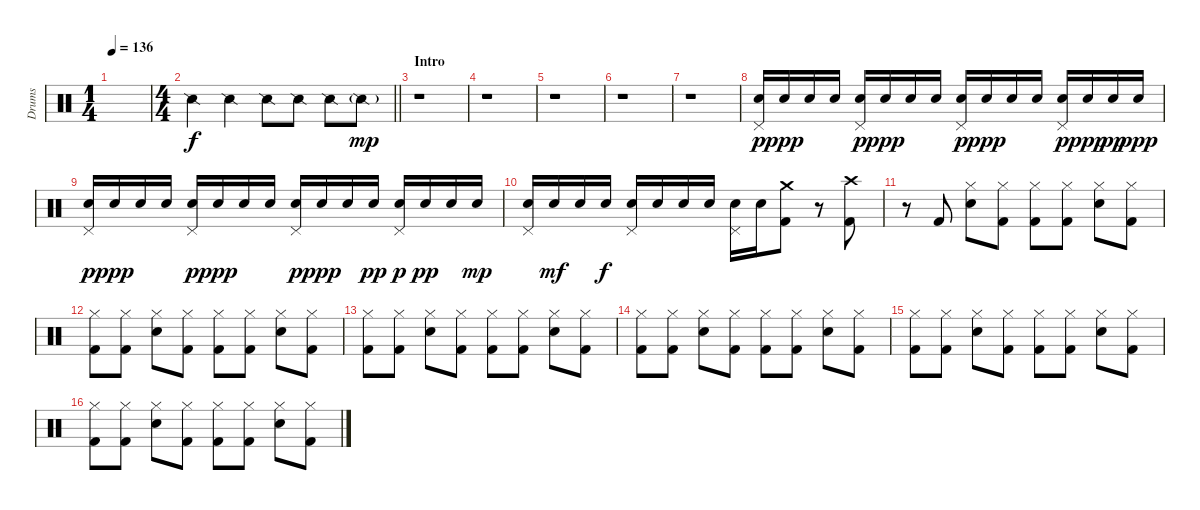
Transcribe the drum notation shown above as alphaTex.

\track ("Drums" "Drums") {instrument percussion}
\staff {score}
\articulation defaults
\ts (1 4)
\tempo 136
\clef neutral
\ks c
|
\ts (4 4)
\barLineRight lightlight "Snare (side stick) 2".4 "Snare (side stick) 2".4 "Snare (side stick) 2".8 "Snare (side stick) 2".8 "Snare (side stick) 2".8 "Snare (side stick) 2"{g}.8{dy mp}
|
\section ("" "Intro")
r.1 |
r.1 |
r.1 |
r.1 |
r.1 |
("Pedal Hi-Hat (hit)" "Snare (hit) 2").16{dy p} "Snare (hit) 2".16{dy ppp} "Snare (hit) 2".16 "Snare (hit) 2".16 ("Pedal Hi-Hat (hit)" "Snare (hit) 2").16{dy p} "Snare (hit) 2".16{dy ppp} "Snare (hit) 2".16 "Snare (hit) 2".16 ("Pedal Hi-Hat (hit)" "Snare (hit) 2").16{dy p} "Snare (hit) 2".16{dy ppp} "Snare (hit) 2".16 "Snare (hit) 2".16 ("Pedal Hi-Hat (hit)" "Snare (hit) 2").16{dy p} "Snare (hit) 2".16{dy ppp} "Snare (hit) 2".16{dy pp} "Snare (hit) 2".16{dy ppp} |
("Pedal Hi-Hat (hit)" "Snare (hit) 2").16{dy p} "Snare (hit) 2".16{dy ppp} "Snare (hit) 2".16 "Snare (hit) 2".16 ("Pedal Hi-Hat (hit)" "Snare (hit) 2").16{dy p} "Snare (hit) 2".16{dy ppp} "Snare (hit) 2".16 "Snare (hit) 2".16 ("Pedal Hi-Hat (hit)" "Snare (hit) 2").16{dy p} "Snare (hit) 2".16{dy ppp} "Snare (hit) 2".16 "Snare (hit) 2".16{dy pp} ("Pedal Hi-Hat (hit)" "Snare (hit) 2").16{dy p} "Snare (hit) 2".16{dy pp} "Snare (hit) 2".16 "Snare (hit) 2".16{dy mp} |
("Pedal Hi-Hat (hit)" "Snare (hit) 2").16 "Snare (hit) 2".16{dy mf} "Snare (hit) 2".16 "Snare (hit) 2".16{dy f} ("Pedal Hi-Hat (hit)" "Snare (hit) 2").16 "Snare (hit) 2".16 "Snare (hit) 2".16 "Snare (hit) 2".16 ("Pedal Hi-Hat (hit)" "Snare (hit) 2").16 "Snare (hit) 2".16 ("Crash medium (hit)" "Kick (hit) 2").8 r.8 ("Crash high (hit)" "Kick (hit) 2").8 |
r.8 "Kick (hit) 2".8 ("Hi-Hat (closed)" "Snare (hit) 2").8 ("Hi-Hat (closed)" "Kick (hit) 2").8 ("Hi-Hat (closed)" "Kick (hit) 2").8 ("Hi-Hat (closed)" "Kick (hit) 2").8 ("Hi-Hat (closed)" "Snare (hit) 2").8 ("Hi-Hat (closed)" "Kick (hit) 2").8 |
("Hi-Hat (closed)" "Kick (hit) 2").8 ("Hi-Hat (closed)" "Kick (hit) 2").8 ("Hi-Hat (closed)" "Snare (hit) 2").8 ("Hi-Hat (closed)" "Kick (hit) 2").8 ("Hi-Hat (closed)" "Kick (hit) 2").8 ("Hi-Hat (closed)" "Kick (hit) 2").8 ("Hi-Hat (closed)" "Snare (hit) 2").8 ("Hi-Hat (closed)" "Kick (hit) 2").8 |
("Hi-Hat (closed)" "Kick (hit) 2").8 ("Hi-Hat (closed)" "Kick (hit) 2").8 ("Hi-Hat (closed)" "Snare (hit) 2").8 ("Hi-Hat (closed)" "Kick (hit) 2").8 ("Hi-Hat (closed)" "Kick (hit) 2").8 ("Hi-Hat (closed)" "Kick (hit) 2").8 ("Hi-Hat (closed)" "Snare (hit) 2").8 ("Hi-Hat (closed)" "Kick (hit) 2").8 |
("Hi-Hat (closed)" "Kick (hit) 2").8 ("Hi-Hat (closed)" "Kick (hit) 2").8 ("Hi-Hat (closed)" "Snare (hit) 2").8 ("Hi-Hat (closed)" "Kick (hit) 2").8 ("Hi-Hat (closed)" "Kick (hit) 2").8 ("Hi-Hat (closed)" "Kick (hit) 2").8 ("Hi-Hat (closed)" "Snare (hit) 2").8 ("Hi-Hat (closed)" "Kick (hit) 2").8 |
("Hi-Hat (closed)" "Kick (hit) 2").8 ("Hi-Hat (closed)" "Kick (hit) 2").8 ("Hi-Hat (closed)" "Snare (hit) 2").8 ("Hi-Hat (closed)" "Kick (hit) 2").8 ("Hi-Hat (closed)" "Kick (hit) 2").8 ("Hi-Hat (closed)" "Kick (hit) 2").8 ("Hi-Hat (closed)" "Snare (hit) 2").8 ("Hi-Hat (closed)" "Kick (hit) 2").8 |
("Hi-Hat (closed)" "Kick (hit) 2").8 ("Hi-Hat (closed)" "Kick (hit) 2").8 ("Hi-Hat (closed)" "Snare (hit) 2").8 ("Hi-Hat (closed)" "Kick (hit) 2").8 ("Hi-Hat (closed)" "Kick (hit) 2").8 ("Hi-Hat (closed)" "Kick (hit) 2").8 ("Hi-Hat (closed)" "Snare (hit) 2").8 ("Hi-Hat (closed)" "Kick (hit) 2").8
